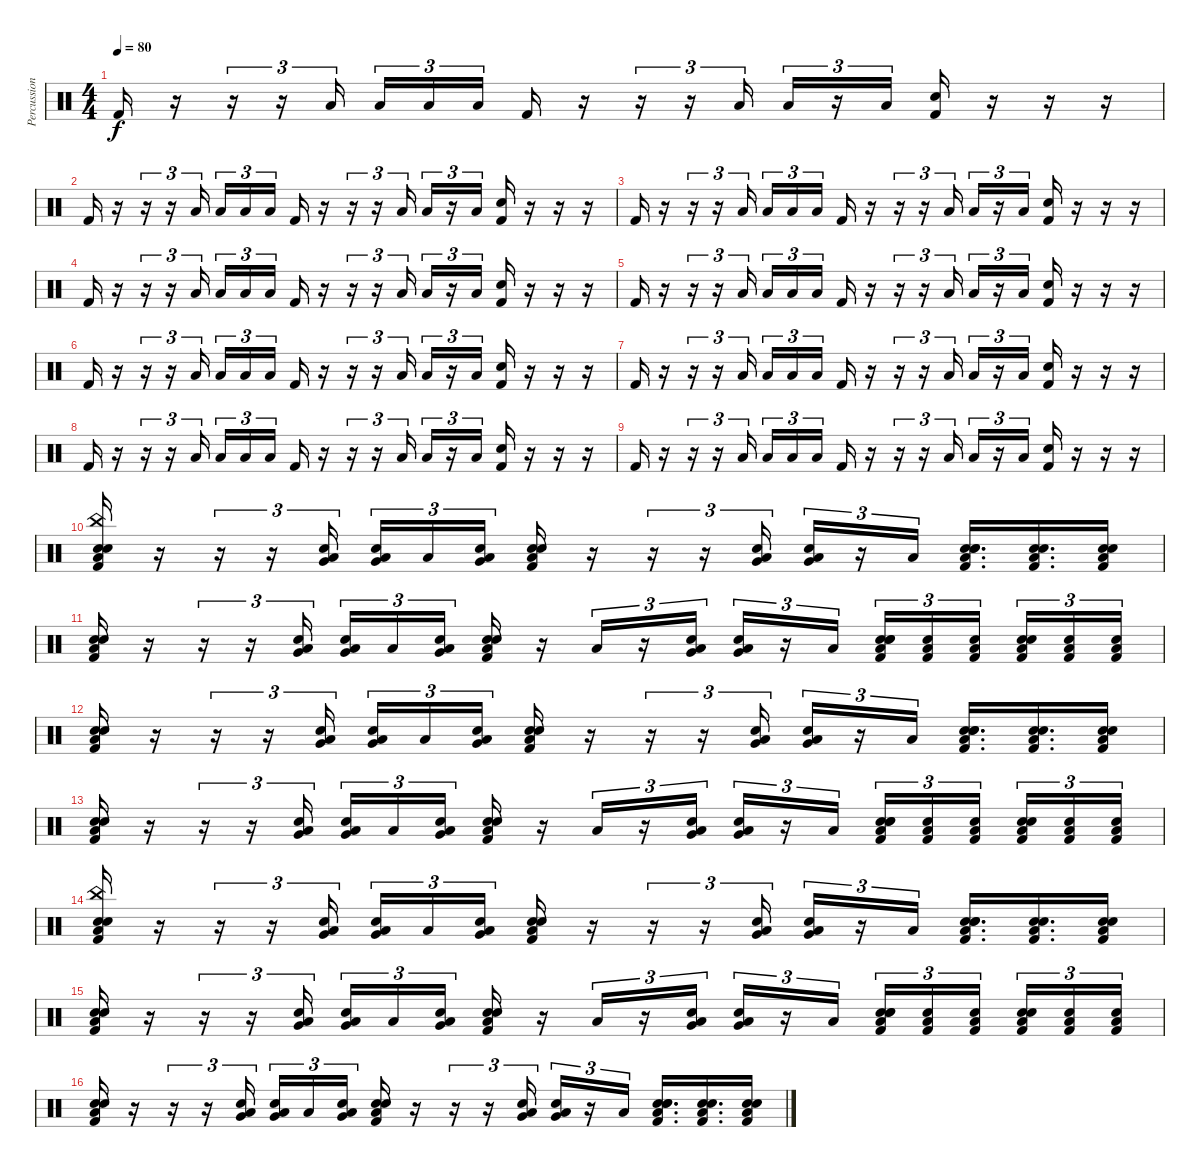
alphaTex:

\track ("Percussion" "Percussion") {instrument percussion}
\staff {score}
\articulation defaults
\ts (4 4)
\tempo 80
\clef neutral
\ks c "Kick (hit) 2".16{dy f}
r.16 r.16{tu (3 2)} r.16{tu (3 2)} "Low Floor Tom (hit)".16{tu (3 2) bd 60} "Low Floor Tom (hit)".16{tu (3 2) bu 60} "Low Floor Tom (hit)".16{tu (3 2) bd 60} "Low Floor Tom (hit)".16{tu (3 2) bu 60 beam splitsecondary} "Kick (hit) 2".16 r.16 r.16{tu (3 2)} r.16{tu (3 2)} "Low Floor Tom (hit)".16{tu (3 2) bd 60} "Low Floor Tom (hit)".16{tu (3 2) bu 60} r.16{tu (3 2)} "Low Floor Tom (hit)".16{tu (3 2) bu 60} ("Hand Clap (hit)" "Kick (hit) 2").16 r.16 r.16 r.16 |
"Kick (hit) 2".16 r.16 r.16{tu (3 2)} r.16{tu (3 2)} "Low Floor Tom (hit)".16{tu (3 2) bd 60} "Low Floor Tom (hit)".16{tu (3 2) bu 60} "Low Floor Tom (hit)".16{tu (3 2) bd 60} "Low Floor Tom (hit)".16{tu (3 2) bu 60 beam splitsecondary} "Kick (hit) 2".16 r.16 r.16{tu (3 2)} r.16{tu (3 2)} "Low Floor Tom (hit)".16{tu (3 2) bd 60} "Low Floor Tom (hit)".16{tu (3 2) bu 60} r.16{tu (3 2)} "Low Floor Tom (hit)".16{tu (3 2) bu 60} ("Hand Clap (hit)" "Kick (hit) 2").16 r.16 r.16 r.16 |
"Kick (hit) 2".16 r.16 r.16{tu (3 2)} r.16{tu (3 2)} "Low Floor Tom (hit)".16{tu (3 2) bd 60} "Low Floor Tom (hit)".16{tu (3 2) bu 60} "Low Floor Tom (hit)".16{tu (3 2) bd 60} "Low Floor Tom (hit)".16{tu (3 2) bu 60 beam splitsecondary} "Kick (hit) 2".16 r.16 r.16{tu (3 2)} r.16{tu (3 2)} "Low Floor Tom (hit)".16{tu (3 2) bd 60} "Low Floor Tom (hit)".16{tu (3 2) bu 60} r.16{tu (3 2)} "Low Floor Tom (hit)".16{tu (3 2) bu 60} ("Hand Clap (hit)" "Kick (hit) 2").16 r.16 r.16 r.16 |
"Kick (hit) 2".16 r.16 r.16{tu (3 2)} r.16{tu (3 2)} "Low Floor Tom (hit)".16{tu (3 2) bd 60} "Low Floor Tom (hit)".16{tu (3 2) bu 60} "Low Floor Tom (hit)".16{tu (3 2) bd 60} "Low Floor Tom (hit)".16{tu (3 2) bu 60 beam splitsecondary} "Kick (hit) 2".16 r.16 r.16{tu (3 2)} r.16{tu (3 2)} "Low Floor Tom (hit)".16{tu (3 2) bd 60} "Low Floor Tom (hit)".16{tu (3 2) bu 60} r.16{tu (3 2)} "Low Floor Tom (hit)".16{tu (3 2) bu 60} ("Hand Clap (hit)" "Kick (hit) 2").16 r.16 r.16 r.16 |
"Kick (hit) 2".16 r.16 r.16{tu (3 2)} r.16{tu (3 2)} "Low Floor Tom (hit)".16{tu (3 2) bd 60} "Low Floor Tom (hit)".16{tu (3 2) bu 60} "Low Floor Tom (hit)".16{tu (3 2) bd 60} "Low Floor Tom (hit)".16{tu (3 2) bu 60 beam splitsecondary} "Kick (hit) 2".16 r.16 r.16{tu (3 2)} r.16{tu (3 2)} "Low Floor Tom (hit)".16{tu (3 2) bd 60} "Low Floor Tom (hit)".16{tu (3 2) bu 60} r.16{tu (3 2)} "Low Floor Tom (hit)".16{tu (3 2) bu 60} ("Hand Clap (hit)" "Kick (hit) 2").16 r.16 r.16 r.16 |
"Kick (hit) 2".16 r.16 r.16{tu (3 2)} r.16{tu (3 2)} "Low Floor Tom (hit)".16{tu (3 2) bd 60} "Low Floor Tom (hit)".16{tu (3 2) bu 60} "Low Floor Tom (hit)".16{tu (3 2) bd 60} "Low Floor Tom (hit)".16{tu (3 2) bu 60 beam splitsecondary} "Kick (hit) 2".16 r.16 r.16{tu (3 2)} r.16{tu (3 2)} "Low Floor Tom (hit)".16{tu (3 2) bd 60} "Low Floor Tom (hit)".16{tu (3 2) bu 60} r.16{tu (3 2)} "Low Floor Tom (hit)".16{tu (3 2) bu 60} ("Hand Clap (hit)" "Kick (hit) 2").16 r.16 r.16 r.16 |
"Kick (hit) 2".16 r.16 r.16{tu (3 2)} r.16{tu (3 2)} "Low Floor Tom (hit)".16{tu (3 2) bd 60} "Low Floor Tom (hit)".16{tu (3 2) bu 60} "Low Floor Tom (hit)".16{tu (3 2) bd 60} "Low Floor Tom (hit)".16{tu (3 2) bu 60 beam splitsecondary} "Kick (hit) 2".16 r.16 r.16{tu (3 2)} r.16{tu (3 2)} "Low Floor Tom (hit)".16{tu (3 2) bd 60} "Low Floor Tom (hit)".16{tu (3 2) bu 60} r.16{tu (3 2)} "Low Floor Tom (hit)".16{tu (3 2) bu 60} ("Hand Clap (hit)" "Kick (hit) 2").16 r.16 r.16 r.16 |
"Kick (hit) 2".16 r.16 r.16{tu (3 2)} r.16{tu (3 2)} "Low Floor Tom (hit)".16{tu (3 2) bd 60} "Low Floor Tom (hit)".16{tu (3 2) bu 60} "Low Floor Tom (hit)".16{tu (3 2) bd 60} "Low Floor Tom (hit)".16{tu (3 2) bu 60 beam splitsecondary} "Kick (hit) 2".16 r.16 r.16{tu (3 2)} r.16{tu (3 2)} "Low Floor Tom (hit)".16{tu (3 2) bd 60} "Low Floor Tom (hit)".16{tu (3 2) bu 60} r.16{tu (3 2)} "Low Floor Tom (hit)".16{tu (3 2) bu 60} ("Hand Clap (hit)" "Kick (hit) 2").16 r.16 r.16 r.16 |
"Kick (hit) 2".16 r.16 r.16{tu (3 2)} r.16{tu (3 2)} "Low Floor Tom (hit)".16{tu (3 2) bd 60} "Low Floor Tom (hit)".16{tu (3 2) bu 60} "Low Floor Tom (hit)".16{tu (3 2) bd 60} "Low Floor Tom (hit)".16{tu (3 2) bu 60 beam splitsecondary} "Kick (hit) 2".16 r.16 r.16{tu (3 2)} r.16{tu (3 2)} "Low Floor Tom (hit)".16{tu (3 2) bd 60} "Low Floor Tom (hit)".16{tu (3 2) bu 60} r.16{tu (3 2)} "Low Floor Tom (hit)".16{tu (3 2) bu 60} ("Hand Clap (hit)" "Kick (hit) 2").16 r.16 r.16 r.16 |
("China (hit)" "Snare (hit) 2" "Electric Snare (hit)" "Low Floor Tom (hit)" "Kick (hit) 2").16 r.16 r.16{tu (3 2)} r.16{tu (3 2)} ("Electric Snare (hit)" "Very Low Tom (hit)" "Low Floor Tom (hit)").16{tu (3 2) bd 60} ("Electric Snare (hit)" "Very Low Tom (hit)" "Low Floor Tom (hit)").16{tu (3 2) bu 60} "Low Floor Tom (hit)".16{tu (3 2) bd 60} ("Electric Snare (hit)" "Very Low Tom (hit)" "Low Floor Tom (hit)").16{tu (3 2) bu 60 beam splitsecondary} ("Snare (hit) 2" "Electric Snare (hit)" "Low Floor Tom (hit)" "Kick (hit) 2").16 r.16 r.16{tu (3 2)} r.16{tu (3 2)} ("Electric Snare (hit)" "Very Low Tom (hit)" "Low Floor Tom (hit)").16{tu (3 2) bd 60} ("Electric Snare (hit)" "Very Low Tom (hit)" "Low Floor Tom (hit)").16{tu (3 2) bu 60} r.16{tu (3 2)} "Low Floor Tom (hit)".16{tu (3 2) bu 60} ("Snare (hit) 2" "Electric Snare (hit)" "Low Floor Tom (hit)" "Hand Clap (hit)" "Kick (hit) 2").16{d} ("Snare (hit) 2" "Electric Snare (hit)" "Low Floor Tom (hit)" "Kick (hit) 2").16{d} ("Snare (hit) 2" "Electric Snare (hit)" "Low Floor Tom (hit)" "Kick (hit) 2").16 |
("Snare (hit) 2" "Electric Snare (hit)" "Low Floor Tom (hit)" "Kick (hit) 2").16 r.16 r.16{tu (3 2)} r.16{tu (3 2)} ("Electric Snare (hit)" "Very Low Tom (hit)" "Low Floor Tom (hit)").16{tu (3 2) bd 60} ("Electric Snare (hit)" "Very Low Tom (hit)" "Low Floor Tom (hit)").16{tu (3 2) bu 60} "Low Floor Tom (hit)".16{tu (3 2) bd 60} ("Electric Snare (hit)" "Very Low Tom (hit)" "Low Floor Tom (hit)").16{tu (3 2) bu 60 beam splitsecondary} ("Snare (hit) 2" "Electric Snare (hit)" "Low Floor Tom (hit)" "Kick (hit) 2").16 r.16 "Low Floor Tom (hit)".16{tu (3 2)} r.16{tu (3 2)} ("Electric Snare (hit)" "Very Low Tom (hit)" "Low Floor Tom (hit)").16{tu (3 2) bd 60} ("Electric Snare (hit)" "Very Low Tom (hit)" "Low Floor Tom (hit)").16{tu (3 2) bu 60} r.16{tu (3 2)} "Low Floor Tom (hit)".16{tu (3 2) bu 60} ("Snare (hit) 2" "Electric Snare (hit)" "Low Floor Tom (hit)" "Hand Clap (hit)" "Kick (hit) 2").16{tu (3 2)} ("Electric Snare (hit)" "Low Floor Tom (hit)" "Kick (hit) 2").16{tu (3 2)} ("Electric Snare (hit)" "Low Floor Tom (hit)" "Kick (hit) 2").16{tu (3 2) beam splitsecondary} ("Snare (hit) 2" "Electric Snare (hit)" "Low Floor Tom (hit)" "Kick (hit) 2").16{tu (3 2)} ("Electric Snare (hit)" "Low Floor Tom (hit)" "Kick (hit) 2").16{tu (3 2)} ("Electric Snare (hit)" "Low Floor Tom (hit)" "Kick (hit) 2").16{tu (3 2)} |
("Snare (hit) 2" "Electric Snare (hit)" "Low Floor Tom (hit)" "Kick (hit) 2").16 r.16 r.16{tu (3 2)} r.16{tu (3 2)} ("Electric Snare (hit)" "Very Low Tom (hit)" "Low Floor Tom (hit)").16{tu (3 2) bd 60} ("Electric Snare (hit)" "Very Low Tom (hit)" "Low Floor Tom (hit)").16{tu (3 2) bu 60} "Low Floor Tom (hit)".16{tu (3 2) bd 60} ("Electric Snare (hit)" "Very Low Tom (hit)" "Low Floor Tom (hit)").16{tu (3 2) bu 60 beam splitsecondary} ("Snare (hit) 2" "Electric Snare (hit)" "Low Floor Tom (hit)" "Kick (hit) 2").16 r.16 r.16{tu (3 2)} r.16{tu (3 2)} ("Electric Snare (hit)" "Very Low Tom (hit)" "Low Floor Tom (hit)").16{tu (3 2) bd 60} ("Electric Snare (hit)" "Very Low Tom (hit)" "Low Floor Tom (hit)").16{tu (3 2) bu 60} r.16{tu (3 2)} "Low Floor Tom (hit)".16{tu (3 2) bu 60} ("Snare (hit) 2" "Electric Snare (hit)" "Low Floor Tom (hit)" "Hand Clap (hit)" "Kick (hit) 2").16{d} ("Snare (hit) 2" "Electric Snare (hit)" "Low Floor Tom (hit)" "Kick (hit) 2").16{d} ("Snare (hit) 2" "Electric Snare (hit)" "Low Floor Tom (hit)" "Kick (hit) 2").16 |
("Snare (hit) 2" "Electric Snare (hit)" "Low Floor Tom (hit)" "Kick (hit) 2").16 r.16 r.16{tu (3 2)} r.16{tu (3 2)} ("Electric Snare (hit)" "Very Low Tom (hit)" "Low Floor Tom (hit)").16{tu (3 2) bd 60} ("Electric Snare (hit)" "Very Low Tom (hit)" "Low Floor Tom (hit)").16{tu (3 2) bu 60} "Low Floor Tom (hit)".16{tu (3 2) bd 60} ("Electric Snare (hit)" "Very Low Tom (hit)" "Low Floor Tom (hit)").16{tu (3 2) bu 60 beam splitsecondary} ("Snare (hit) 2" "Electric Snare (hit)" "Low Floor Tom (hit)" "Kick (hit) 2").16 r.16 "Low Floor Tom (hit)".16{tu (3 2)} r.16{tu (3 2)} ("Electric Snare (hit)" "Very Low Tom (hit)" "Low Floor Tom (hit)").16{tu (3 2) bd 60} ("Electric Snare (hit)" "Very Low Tom (hit)" "Low Floor Tom (hit)").16{tu (3 2) bu 60} r.16{tu (3 2)} "Low Floor Tom (hit)".16{tu (3 2) bu 60} ("Snare (hit) 2" "Electric Snare (hit)" "Low Floor Tom (hit)" "Hand Clap (hit)" "Kick (hit) 2").16{tu (3 2)} ("Electric Snare (hit)" "Low Floor Tom (hit)" "Kick (hit) 2").16{tu (3 2)} ("Electric Snare (hit)" "Low Floor Tom (hit)" "Kick (hit) 2").16{tu (3 2) beam splitsecondary} ("Snare (hit) 2" "Electric Snare (hit)" "Low Floor Tom (hit)" "Kick (hit) 2").16{tu (3 2)} ("Electric Snare (hit)" "Low Floor Tom (hit)" "Kick (hit) 2").16{tu (3 2)} ("Electric Snare (hit)" "Low Floor Tom (hit)" "Kick (hit) 2").16{tu (3 2)} |
("China (hit)" "Snare (hit) 2" "Electric Snare (hit)" "Low Floor Tom (hit)" "Kick (hit) 2").16 r.16 r.16{tu (3 2)} r.16{tu (3 2)} ("Electric Snare (hit)" "Very Low Tom (hit)" "Low Floor Tom (hit)").16{tu (3 2) bd 60} ("Electric Snare (hit)" "Very Low Tom (hit)" "Low Floor Tom (hit)").16{tu (3 2) bu 60} "Low Floor Tom (hit)".16{tu (3 2) bd 60} ("Electric Snare (hit)" "Very Low Tom (hit)" "Low Floor Tom (hit)").16{tu (3 2) bu 60 beam splitsecondary} ("Snare (hit) 2" "Electric Snare (hit)" "Low Floor Tom (hit)" "Kick (hit) 2").16 r.16 r.16{tu (3 2)} r.16{tu (3 2)} ("Electric Snare (hit)" "Very Low Tom (hit)" "Low Floor Tom (hit)").16{tu (3 2) bd 60} ("Electric Snare (hit)" "Very Low Tom (hit)" "Low Floor Tom (hit)").16{tu (3 2) bu 60} r.16{tu (3 2)} "Low Floor Tom (hit)".16{tu (3 2) bu 60} ("Snare (hit) 2" "Electric Snare (hit)" "Low Floor Tom (hit)" "Hand Clap (hit)" "Kick (hit) 2").16{d} ("Snare (hit) 2" "Electric Snare (hit)" "Low Floor Tom (hit)" "Kick (hit) 2").16{d} ("Snare (hit) 2" "Electric Snare (hit)" "Low Floor Tom (hit)" "Kick (hit) 2").16 |
("Snare (hit) 2" "Electric Snare (hit)" "Low Floor Tom (hit)" "Kick (hit) 2").16 r.16 r.16{tu (3 2)} r.16{tu (3 2)} ("Electric Snare (hit)" "Very Low Tom (hit)" "Low Floor Tom (hit)").16{tu (3 2) bd 60} ("Electric Snare (hit)" "Very Low Tom (hit)" "Low Floor Tom (hit)").16{tu (3 2) bu 60} "Low Floor Tom (hit)".16{tu (3 2) bd 60} ("Electric Snare (hit)" "Very Low Tom (hit)" "Low Floor Tom (hit)").16{tu (3 2) bu 60 beam splitsecondary} ("Snare (hit) 2" "Electric Snare (hit)" "Low Floor Tom (hit)" "Kick (hit) 2").16 r.16 "Low Floor Tom (hit)".16{tu (3 2)} r.16{tu (3 2)} ("Electric Snare (hit)" "Very Low Tom (hit)" "Low Floor Tom (hit)").16{tu (3 2) bd 60} ("Electric Snare (hit)" "Very Low Tom (hit)" "Low Floor Tom (hit)").16{tu (3 2) bu 60} r.16{tu (3 2)} "Low Floor Tom (hit)".16{tu (3 2) bu 60} ("Snare (hit) 2" "Electric Snare (hit)" "Low Floor Tom (hit)" "Hand Clap (hit)" "Kick (hit) 2").16{tu (3 2)} ("Electric Snare (hit)" "Low Floor Tom (hit)" "Kick (hit) 2").16{tu (3 2)} ("Electric Snare (hit)" "Low Floor Tom (hit)" "Kick (hit) 2").16{tu (3 2) beam splitsecondary} ("Snare (hit) 2" "Electric Snare (hit)" "Low Floor Tom (hit)" "Kick (hit) 2").16{tu (3 2)} ("Electric Snare (hit)" "Low Floor Tom (hit)" "Kick (hit) 2").16{tu (3 2)} ("Electric Snare (hit)" "Low Floor Tom (hit)" "Kick (hit) 2").16{tu (3 2)} |
("Snare (hit) 2" "Electric Snare (hit)" "Low Floor Tom (hit)" "Kick (hit) 2").16 r.16 r.16{tu (3 2)} r.16{tu (3 2)} ("Electric Snare (hit)" "Very Low Tom (hit)" "Low Floor Tom (hit)").16{tu (3 2) bd 60} ("Electric Snare (hit)" "Very Low Tom (hit)" "Low Floor Tom (hit)").16{tu (3 2) bu 60} "Low Floor Tom (hit)".16{tu (3 2) bd 60} ("Electric Snare (hit)" "Very Low Tom (hit)" "Low Floor Tom (hit)").16{tu (3 2) bu 60 beam splitsecondary} ("Snare (hit) 2" "Electric Snare (hit)" "Low Floor Tom (hit)" "Kick (hit) 2").16 r.16 r.16{tu (3 2)} r.16{tu (3 2)} ("Electric Snare (hit)" "Very Low Tom (hit)" "Low Floor Tom (hit)").16{tu (3 2) bd 60} ("Electric Snare (hit)" "Very Low Tom (hit)" "Low Floor Tom (hit)").16{tu (3 2) bu 60} r.16{tu (3 2)} "Low Floor Tom (hit)".16{tu (3 2) bu 60} ("Snare (hit) 2" "Electric Snare (hit)" "Low Floor Tom (hit)" "Hand Clap (hit)" "Kick (hit) 2").16{d} ("Snare (hit) 2" "Electric Snare (hit)" "Low Floor Tom (hit)" "Kick (hit) 2").16{d} ("Snare (hit) 2" "Electric Snare (hit)" "Low Floor Tom (hit)" "Kick (hit) 2").16
